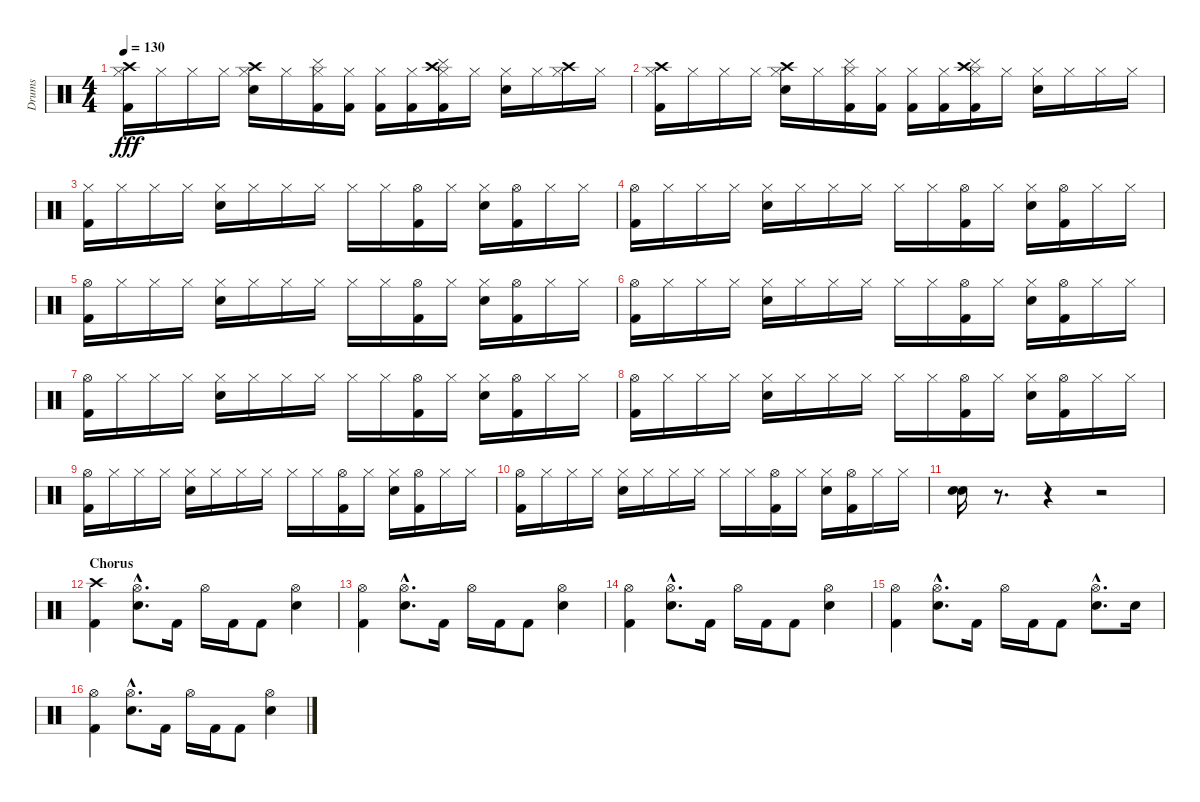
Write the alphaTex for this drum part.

\track ("Drums" "Drums") {instrument percussion}
\staff {score}
\articulation defaults
\ts (4 4)
\tempo 130
\clef neutral
\ks c
("Crash high (hit)" "Hi-Hat (closed)" "Kick (hit) 2").16{dy fff} "Hi-Hat (closed)".16 "Hi-Hat (closed)".16 "Hi-Hat (closed)".16 ("Crash high (hit)" "Hi-Hat (closed)" "Electric Snare (hit)").16 "Hi-Hat (closed)".16 ("Cymbal (hit)" "Hi-Hat (closed)" "Kick (hit) 2").16 ("Hi-Hat (closed)" "Kick (hit) 2").16 ("Hi-Hat (closed)" "Kick (hit) 2").16 ("Hi-Hat (closed)" "Kick (hit) 2").16 ("Crash high (hit)" "Cymbal (hit)" "Hi-Hat (closed)" "Kick (hit) 2").16 "Hi-Hat (closed)".16 ("Hi-Hat (closed)" "Electric Snare (hit)").16 "Hi-Hat (closed)".16 ("Crash high (hit)" "Hi-Hat (closed)").16 "Hi-Hat (closed)".16 |
("Crash high (hit)" "Hi-Hat (closed)" "Kick (hit) 2").16 "Hi-Hat (closed)".16 "Hi-Hat (closed)".16 "Hi-Hat (closed)".16 ("Crash high (hit)" "Hi-Hat (closed)" "Electric Snare (hit)").16 "Hi-Hat (closed)".16 ("Cymbal (hit)" "Hi-Hat (closed)" "Kick (hit) 2").16 ("Hi-Hat (closed)" "Kick (hit) 2").16 ("Hi-Hat (closed)" "Kick (hit) 2").16 ("Hi-Hat (closed)" "Kick (hit) 2").16 ("Crash high (hit)" "Cymbal (hit)" "Hi-Hat (closed)" "Kick (hit) 2").16 "Hi-Hat (closed)".16 ("Hi-Hat (closed)" "Electric Snare (hit)").16 "Hi-Hat (closed)".16 "Hi-Hat (closed)".16 "Hi-Hat (closed)".16 |
("Hi-Hat (closed)" "Kick (hit) 2").16 "Hi-Hat (closed)".16 "Hi-Hat (closed)".16 "Hi-Hat (closed)".16 ("Hi-Hat (closed)" "Electric Snare (hit)").16 "Hi-Hat (closed)".16 "Hi-Hat (closed)".16 "Hi-Hat (closed)".16 "Hi-Hat (closed)".16 "Hi-Hat (closed)".16 ("Hi-Hat (open)" "Kick (hit) 2").16 "Hi-Hat (closed)".16 ("Hi-Hat (closed)" "Electric Snare (hit)").16 ("Hi-Hat (open)" "Kick (hit) 2").16 "Hi-Hat (closed)".16 "Hi-Hat (closed)".16 |
("Hi-Hat (open)" "Kick (hit) 2").16 "Hi-Hat (closed)".16 "Hi-Hat (closed)".16 "Hi-Hat (closed)".16 ("Hi-Hat (closed)" "Electric Snare (hit)").16 "Hi-Hat (closed)".16 "Hi-Hat (closed)".16 "Hi-Hat (closed)".16 "Hi-Hat (closed)".16 "Hi-Hat (closed)".16 ("Hi-Hat (open)" "Kick (hit) 2").16 "Hi-Hat (closed)".16 ("Hi-Hat (closed)" "Electric Snare (hit)").16 ("Hi-Hat (open)" "Kick (hit) 2").16 "Hi-Hat (closed)".16 "Hi-Hat (closed)".16 |
("Hi-Hat (open)" "Kick (hit) 2").16 "Hi-Hat (closed)".16 "Hi-Hat (closed)".16 "Hi-Hat (closed)".16 ("Hi-Hat (closed)" "Electric Snare (hit)").16 "Hi-Hat (closed)".16 "Hi-Hat (closed)".16 "Hi-Hat (closed)".16 "Hi-Hat (closed)".16 "Hi-Hat (closed)".16 ("Hi-Hat (open)" "Kick (hit) 2").16 "Hi-Hat (closed)".16 ("Hi-Hat (closed)" "Electric Snare (hit)").16 ("Hi-Hat (open)" "Kick (hit) 2").16 "Hi-Hat (closed)".16 "Hi-Hat (closed)".16 |
("Hi-Hat (open)" "Kick (hit) 2").16 "Hi-Hat (closed)".16 "Hi-Hat (closed)".16 "Hi-Hat (closed)".16 ("Hi-Hat (closed)" "Electric Snare (hit)").16 "Hi-Hat (closed)".16 "Hi-Hat (closed)".16 "Hi-Hat (closed)".16 "Hi-Hat (closed)".16 "Hi-Hat (closed)".16 ("Hi-Hat (open)" "Kick (hit) 2").16 "Hi-Hat (closed)".16 ("Hi-Hat (closed)" "Electric Snare (hit)").16 ("Hi-Hat (open)" "Kick (hit) 2").16 "Hi-Hat (closed)".16 "Hi-Hat (closed)".16 |
("Hi-Hat (open)" "Kick (hit) 2").16 "Hi-Hat (closed)".16 "Hi-Hat (closed)".16 "Hi-Hat (closed)".16 ("Hi-Hat (closed)" "Electric Snare (hit)").16 "Hi-Hat (closed)".16 "Hi-Hat (closed)".16 "Hi-Hat (closed)".16 "Hi-Hat (closed)".16 "Hi-Hat (closed)".16 ("Hi-Hat (open)" "Kick (hit) 2").16 "Hi-Hat (closed)".16 ("Hi-Hat (closed)" "Electric Snare (hit)").16 ("Hi-Hat (open)" "Kick (hit) 2").16 "Hi-Hat (closed)".16 "Hi-Hat (closed)".16 |
("Hi-Hat (open)" "Kick (hit) 2").16 "Hi-Hat (closed)".16 "Hi-Hat (closed)".16 "Hi-Hat (closed)".16 ("Hi-Hat (closed)" "Electric Snare (hit)").16 "Hi-Hat (closed)".16 "Hi-Hat (closed)".16 "Hi-Hat (closed)".16 "Hi-Hat (closed)".16 "Hi-Hat (closed)".16 ("Hi-Hat (open)" "Kick (hit) 2").16 "Hi-Hat (closed)".16 ("Hi-Hat (closed)" "Electric Snare (hit)").16 ("Hi-Hat (open)" "Kick (hit) 2").16 "Hi-Hat (closed)".16 "Hi-Hat (closed)".16 |
("Hi-Hat (open)" "Kick (hit) 2").16 "Hi-Hat (closed)".16 "Hi-Hat (closed)".16 "Hi-Hat (closed)".16 ("Hi-Hat (closed)" "Electric Snare (hit)").16 "Hi-Hat (closed)".16 "Hi-Hat (closed)".16 "Hi-Hat (closed)".16 "Hi-Hat (closed)".16 "Hi-Hat (closed)".16 ("Hi-Hat (open)" "Kick (hit) 2").16 "Hi-Hat (closed)".16 ("Hi-Hat (closed)" "Electric Snare (hit)").16 ("Hi-Hat (open)" "Kick (hit) 2").16 "Hi-Hat (closed)".16 "Hi-Hat (closed)".16 |
("Hi-Hat (open)" "Kick (hit) 2").16 "Hi-Hat (closed)".16 "Hi-Hat (closed)".16 "Hi-Hat (closed)".16 ("Hi-Hat (closed)" "Electric Snare (hit)").16 "Hi-Hat (closed)".16 "Hi-Hat (closed)".16 "Hi-Hat (closed)".16 "Hi-Hat (closed)".16 "Hi-Hat (closed)".16 ("Hi-Hat (open)" "Kick (hit) 2").16 "Hi-Hat (closed)".16 ("Hi-Hat (closed)" "Electric Snare (hit)").16 ("Hi-Hat (open)" "Kick (hit) 2").16 "Hi-Hat (closed)".16 "Hi-Hat (closed)".16 |
("Electric Snare (hit)" "Electric Snare (hit)").16 r.8{d} r.4 r.2 |
\section ("" "Chorus")
("Crash high (hit)" "Kick (hit) 2").4 ("Hi-Hat (open)"{hac} "Electric Snare (hit)"{hac}).8{d} "Kick (hit) 2".16 "Hi-Hat (open)".16 "Kick (hit) 2".16 "Kick (hit) 2".8 ("Hi-Hat (open)" "Electric Snare (hit)").4 |
("Hi-Hat (open)" "Kick (hit) 2").4 ("Hi-Hat (open)"{hac} "Electric Snare (hit)"{hac}).8{d} "Kick (hit) 2".16 "Hi-Hat (open)".16 "Kick (hit) 2".16 "Kick (hit) 2".8 ("Hi-Hat (open)" "Electric Snare (hit)").4 |
("Hi-Hat (open)" "Kick (hit) 2").4 ("Hi-Hat (open)"{hac} "Electric Snare (hit)"{hac}).8{d} "Kick (hit) 2".16 "Hi-Hat (open)".16 "Kick (hit) 2".16 "Kick (hit) 2".8 ("Hi-Hat (open)" "Electric Snare (hit)").4 |
("Hi-Hat (open)" "Kick (hit) 2").4 ("Hi-Hat (open)"{hac} "Electric Snare (hit)"{hac}).8{d} "Kick (hit) 2".16 "Hi-Hat (open)".16 "Kick (hit) 2".16 "Kick (hit) 2".8 ("Hi-Hat (open)"{hac} "Electric Snare (hit)"{hac}).8{d} "Electric Snare (hit)".16 |
("Hi-Hat (open)" "Kick (hit) 2").4 ("Hi-Hat (open)"{hac} "Electric Snare (hit)"{hac}).8{d} "Kick (hit) 2".16 "Hi-Hat (open)".16 "Kick (hit) 2".16 "Kick (hit) 2".8 ("Hi-Hat (open)" "Electric Snare (hit)").4
